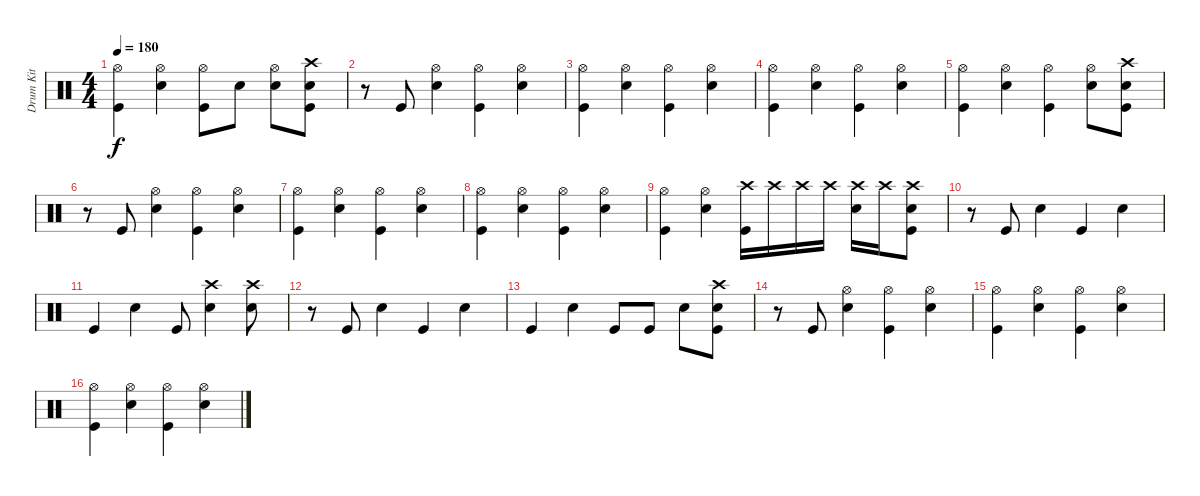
\track ("Drum Kit" "Drum Kit") {instrument percussion}
\staff {score}
\articulation defaults
\ts (4 4)
\tempo 180
\clef neutral
\ks c
("Kick (hit)" "Hi-Hat (open)").4{dy f} ("Snare (hit) 2" "Hi-Hat (open)").4 ("Kick (hit)" "Hi-Hat (open)").8 "Snare (hit) 2".8 ("Snare (hit) 2" "Hi-Hat (open)").8 ("Snare (hit) 2" "Crash high (hit)" "Kick (hit)").8 |
r.8 "Kick (hit)".8 ("Snare (hit) 2" "Hi-Hat (open)").4 ("Kick (hit)" "Hi-Hat (open)").4 ("Snare (hit) 2" "Hi-Hat (open)").4 |
("Kick (hit)" "Hi-Hat (open)").4 ("Snare (hit) 2" "Hi-Hat (open)").4 ("Kick (hit)" "Hi-Hat (open)").4 ("Snare (hit) 2" "Hi-Hat (open)").4 |
("Kick (hit)" "Hi-Hat (open)").4 ("Snare (hit) 2" "Hi-Hat (open)").4 ("Kick (hit)" "Hi-Hat (open)").4 ("Snare (hit) 2" "Hi-Hat (open)").4 |
("Kick (hit)" "Hi-Hat (open)").4 ("Snare (hit) 2" "Hi-Hat (open)").4 ("Kick (hit)" "Hi-Hat (open)").4 ("Snare (hit) 2" "Hi-Hat (open)").8 ("Snare (hit) 2" "Crash high (hit)" "Kick (hit)").8 |
r.8 "Kick (hit)".8 ("Snare (hit) 2" "Hi-Hat (open)").4 ("Kick (hit)" "Hi-Hat (open)").4 ("Snare (hit) 2" "Hi-Hat (open)").4 |
("Kick (hit)" "Hi-Hat (open)").4 ("Snare (hit) 2" "Hi-Hat (open)").4 ("Kick (hit)" "Hi-Hat (open)").4 ("Snare (hit) 2" "Hi-Hat (open)").4 |
("Kick (hit)" "Hi-Hat (open)").4 ("Snare (hit) 2" "Hi-Hat (open)").4 ("Kick (hit)" "Hi-Hat (open)").4 ("Snare (hit) 2" "Hi-Hat (open)").4 |
("Kick (hit)" "Hi-Hat (open)").4 ("Snare (hit) 2" "Hi-Hat (open)").4 ("Kick (hit)" "Crash high (hit)").16 "Crash high (hit)".16 "Crash high (hit)".16 "Crash high (hit)".16 ("Snare (hit) 2" "Crash high (hit)").16 "Crash high (hit)".16 ("Snare (hit) 2" "Crash high (hit)" "Kick (hit)").8 |
r.8 "Kick (hit)".8 "Snare (hit) 2".4 "Kick (hit)".4 "Snare (hit) 2".4 |
"Kick (hit)".4 "Snare (hit) 2".4 "Kick (hit)".8 ("Snare (hit) 2" "Crash high (hit)").4 ("Crash high (hit)" "Snare (hit) 2").8 |
r.8 "Kick (hit)".8 "Snare (hit) 2".4 "Kick (hit)".4 "Snare (hit) 2".4 |
"Kick (hit)".4 "Snare (hit) 2".4 "Kick (hit)".8 "Kick (hit)".8 "Snare (hit) 2".8 ("Snare (hit) 2" "Kick (hit)" "Crash high (hit)").8 |
r.8 "Kick (hit)".8 ("Snare (hit) 2" "Hi-Hat (open)").4 ("Kick (hit)" "Hi-Hat (open)").4 ("Snare (hit) 2" "Hi-Hat (open)").4 |
("Kick (hit)" "Hi-Hat (open)").4 ("Snare (hit) 2" "Hi-Hat (open)").4 ("Kick (hit)" "Hi-Hat (open)").4 ("Snare (hit) 2" "Hi-Hat (open)").4 |
("Kick (hit)" "Hi-Hat (open)").4 ("Snare (hit) 2" "Hi-Hat (open)").4 ("Kick (hit)" "Hi-Hat (open)").4 ("Snare (hit) 2" "Hi-Hat (open)").4
